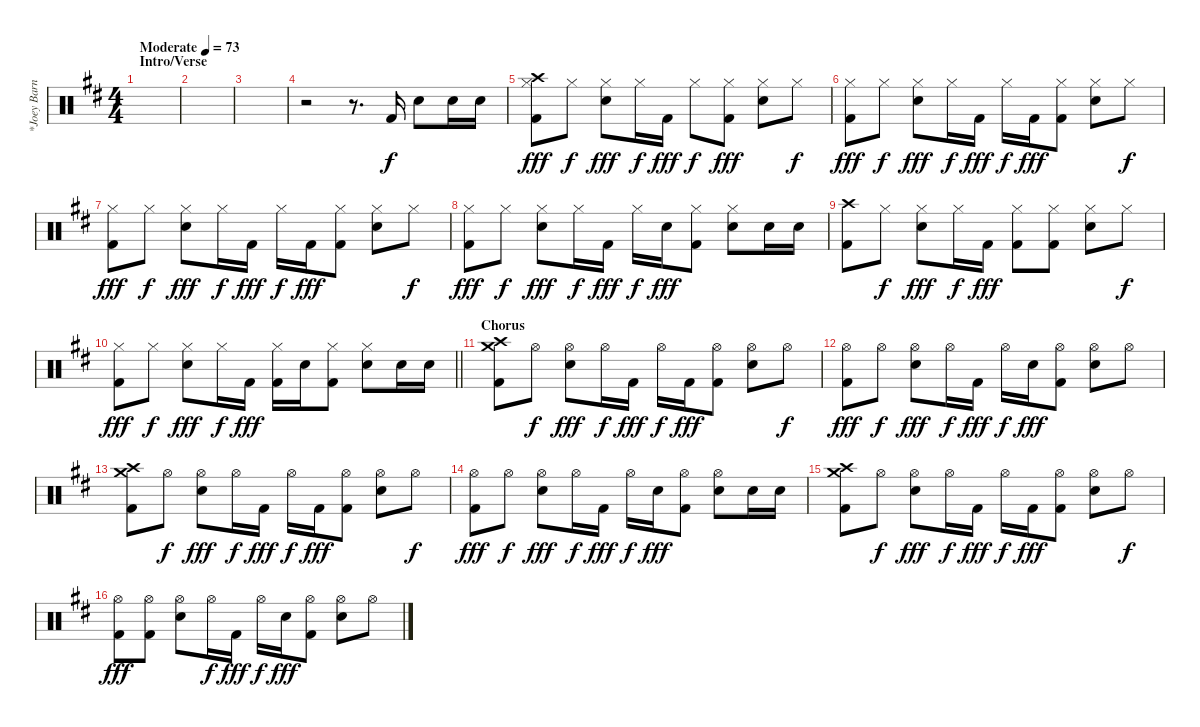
\track ("*Joey Barnes (Drums)" "*Joey Barn") {instrument percussion}
\staff {score}
\articulation defaults
\ts (4 4)
\section ("" "Intro/Verse")
\tempo (73 "Moderate")
\clef neutral
\ks d
|
|
|
r.2 r.8{d} "Kick (hit) 2".16 "Snare (hit) 2".8 "Snare (hit) 2".16 "Snare (hit) 2".16 |
("Crash high (hit)" "Hi-Hat (closed)" "Kick (hit) 2").8{dy fff} "Hi-Hat (closed)".8{dy f} ("Hi-Hat (closed)" "Snare (hit) 2").8{dy fff} "Hi-Hat (closed)".16{dy f} "Kick (hit) 2".16{dy fff} "Hi-Hat (closed)".8{dy f} ("Hi-Hat (closed)" "Kick (hit) 2").8{dy fff} ("Hi-Hat (closed)" "Snare (hit) 2").8 "Hi-Hat (closed)".8{dy f} |
("Hi-Hat (closed)" "Kick (hit) 2").8{dy fff} "Hi-Hat (closed)".8{dy f} ("Hi-Hat (closed)" "Snare (hit) 2").8{dy fff} "Hi-Hat (closed)".16{dy f} "Kick (hit) 2".16{dy fff} "Hi-Hat (closed)".16{dy f} "Kick (hit) 2".16{dy fff} ("Hi-Hat (closed)" "Kick (hit) 2").8 ("Hi-Hat (closed)" "Snare (hit) 2").8 "Hi-Hat (closed)".8{dy f} |
("Hi-Hat (closed)" "Kick (hit) 2").8{dy fff} "Hi-Hat (closed)".8{dy f} ("Hi-Hat (closed)" "Snare (hit) 2").8{dy fff} "Hi-Hat (closed)".16{dy f} "Kick (hit) 2".16{dy fff} "Hi-Hat (closed)".16{dy f} "Kick (hit) 2".16{dy fff} ("Hi-Hat (closed)" "Kick (hit) 2").8 ("Hi-Hat (closed)" "Snare (hit) 2").8 "Hi-Hat (closed)".8{dy f} |
("Hi-Hat (closed)" "Kick (hit) 2").8{dy fff} "Hi-Hat (closed)".8{dy f} ("Hi-Hat (closed)" "Snare (hit) 2").8{dy fff} "Hi-Hat (closed)".16{dy f} "Kick (hit) 2".16{dy fff} "Hi-Hat (closed)".16{dy f} "Snare (hit) 2".16{dy fff} ("Hi-Hat (closed)" "Kick (hit) 2").8 ("Hi-Hat (closed)" "Snare (hit) 2").8 "Snare (hit) 2".16 "Snare (hit) 2".16 |
("Crash high (hit)" "Kick (hit) 2").8 "Hi-Hat (closed)".8{dy f} ("Hi-Hat (closed)" "Snare (hit) 2").8{dy fff} "Hi-Hat (closed)".16{dy f} "Kick (hit) 2".16{dy fff} ("Hi-Hat (closed)" "Kick (hit) 2").8 ("Hi-Hat (closed)" "Kick (hit) 2").8 ("Hi-Hat (closed)" "Snare (hit) 2").8 "Hi-Hat (closed)".8{dy f} |
\barLineRight lightlight
("Hi-Hat (closed)" "Kick (hit) 2").8{dy fff} "Hi-Hat (closed)".8{dy f} ("Hi-Hat (closed)" "Snare (hit) 2").8{dy fff} "Hi-Hat (closed)".16{dy f} "Kick (hit) 2".16{dy fff} ("Hi-Hat (closed)" "Kick (hit) 2").16 "Snare (hit) 2".16 ("Hi-Hat (closed)" "Kick (hit) 2").8 ("Hi-Hat (closed)" "Snare (hit) 2").8 "Snare (hit) 2".16 "Snare (hit) 2".16 |
\section ("" "Chorus")
("Crash high (hit)" "Crash medium (hit)" "Kick (hit) 2").8 "Hi-Hat (open)".8{dy f} ("Hi-Hat (open)" "Snare (hit) 2").8{dy fff} "Hi-Hat (open)".16{dy f} "Kick (hit) 2".16{dy fff} "Hi-Hat (open)".16{dy f} "Kick (hit) 2".16{dy fff} ("Hi-Hat (open)" "Kick (hit) 2").8 ("Hi-Hat (open)" "Snare (hit) 2").8 "Hi-Hat (open)".8{dy f} |
("Hi-Hat (open)" "Kick (hit) 2").8{dy fff} "Hi-Hat (open)".8{dy f} ("Hi-Hat (open)" "Snare (hit) 2").8{dy fff} "Hi-Hat (open)".16{dy f} "Kick (hit) 2".16{dy fff} "Hi-Hat (open)".16{dy f} "Snare (hit) 2".16{dy fff} ("Hi-Hat (open)" "Kick (hit) 2").8 ("Hi-Hat (open)" "Snare (hit) 2").8 "Hi-Hat (open)".8 |
("Crash high (hit)" "Crash medium (hit)" "Kick (hit) 2").8 "Hi-Hat (open)".8{dy f} ("Hi-Hat (open)" "Snare (hit) 2").8{dy fff} "Hi-Hat (open)".16{dy f} "Kick (hit) 2".16{dy fff} "Hi-Hat (open)".16{dy f} "Kick (hit) 2".16{dy fff} ("Hi-Hat (open)" "Kick (hit) 2").8 ("Hi-Hat (open)" "Snare (hit) 2").8 "Hi-Hat (open)".8{dy f} |
("Hi-Hat (open)" "Kick (hit) 2").8{dy fff} "Hi-Hat (open)".8{dy f} ("Hi-Hat (open)" "Snare (hit) 2").8{dy fff} "Hi-Hat (open)".16{dy f} "Kick (hit) 2".16{dy fff} "Hi-Hat (open)".16{dy f} "Snare (hit) 2".16{dy fff} ("Hi-Hat (open)" "Kick (hit) 2").8 ("Hi-Hat (open)" "Snare (hit) 2").8 "Snare (hit) 2".16 "Snare (hit) 2".16 |
("Crash high (hit)" "Crash medium (hit)" "Kick (hit) 2").8 "Hi-Hat (open)".8{dy f} ("Hi-Hat (open)" "Snare (hit) 2").8{dy fff} "Hi-Hat (open)".16{dy f} "Kick (hit) 2".16{dy fff} "Hi-Hat (open)".16{dy f} "Kick (hit) 2".16{dy fff} ("Hi-Hat (open)" "Kick (hit) 2").8 ("Hi-Hat (open)" "Snare (hit) 2").8 "Hi-Hat (open)".8{dy f} |
("Hi-Hat (open)" "Kick (hit) 2").8{dy fff} ("Hi-Hat (open)" "Kick (hit) 2").8 ("Hi-Hat (open)" "Snare (hit) 2").8 "Hi-Hat (open)".16{dy f} "Kick (hit) 2".16{dy fff} "Hi-Hat (open)".16{dy f} "Snare (hit) 2".16{dy fff} ("Hi-Hat (open)" "Kick (hit) 2").8 ("Hi-Hat (open)" "Snare (hit) 2").8 "Hi-Hat (open)".8
